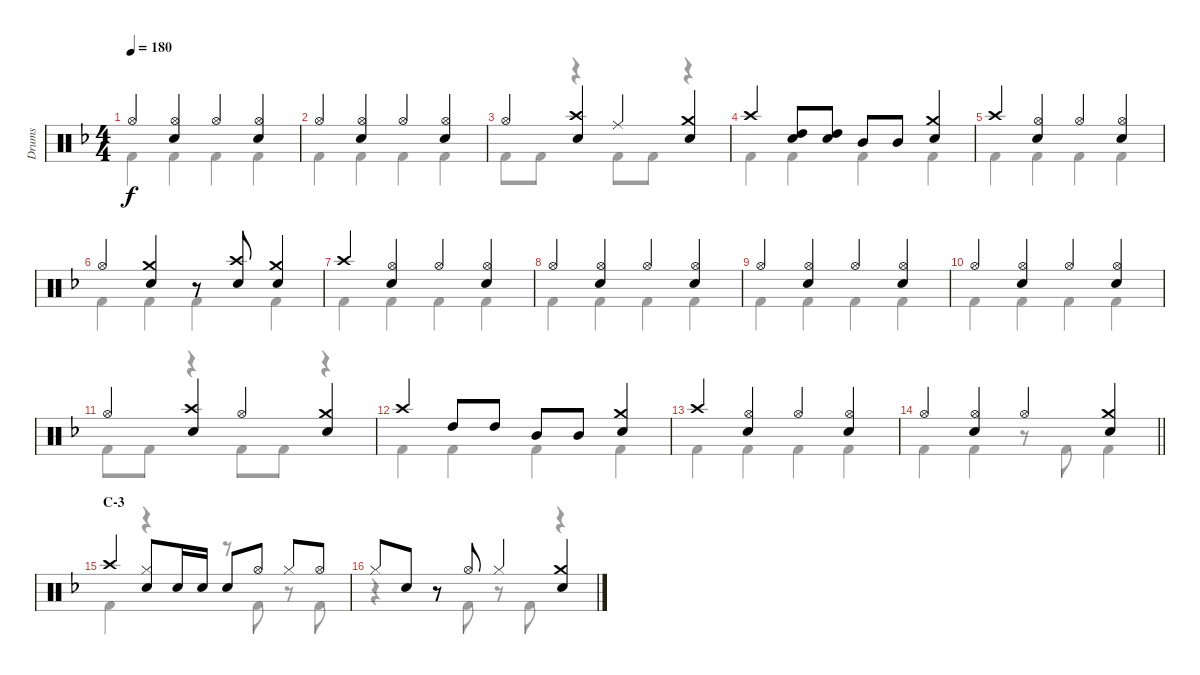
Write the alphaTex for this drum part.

\track ("Drums" "Drums") {instrument percussion}
\staff {score}
\articulation defaults
\voice
\ts (4 4)
\tempo 180
\clef neutral
\ks f "Hi-Hat (open)".4{dy f}
("Hi-Hat (open)" "Snare (hit) 2").4 "Hi-Hat (open)".4 ("Hi-Hat (open)" "Snare (hit) 2").4 |
"Hi-Hat (open)".4 ("Hi-Hat (open)" "Snare (hit) 2").4 "Hi-Hat (open)".4 ("Hi-Hat (open)" "Snare (hit) 2").4 |
"Hi-Hat (open)".4 ("Crash high (hit)" "Snare (hit) 2").4 "Ride (middle)".4 ("Crash medium (hit)" "Snare (hit) 2").4 |
"Crash high (hit)".4 ("High Tom (hit)" "Snare (hit) 2").8 ("High Tom (hit)" "Snare (hit) 2").8 "Mid Tom (hit)".8 "Mid Tom (hit)".8 ("Crash medium (hit)" "Snare (hit) 2").4 |
"Crash high (hit)".4 ("Hi-Hat (open)" "Snare (hit) 2").4 "Hi-Hat (open)".4 ("Hi-Hat (open)" "Snare (hit) 2").4 |
"Hi-Hat (open)".4 ("Crash medium (hit)" "Snare (hit) 2").4 r.8 ("Crash high (hit)" "Snare (hit) 2").8 ("Crash medium (hit)" "Snare (hit) 2").4 |
"Crash high (hit)".4 ("Hi-Hat (open)" "Snare (hit) 2").4 "Hi-Hat (open)".4 ("Hi-Hat (open)" "Snare (hit) 2").4 |
"Hi-Hat (open)".4 ("Hi-Hat (open)" "Snare (hit) 2").4 "Hi-Hat (open)".4 ("Hi-Hat (open)" "Snare (hit) 2").4 |
"Hi-Hat (open)".4 ("Hi-Hat (open)" "Snare (hit) 2").4 "Hi-Hat (open)".4 ("Hi-Hat (open)" "Snare (hit) 2").4 |
"Hi-Hat (open)".4 ("Hi-Hat (open)" "Snare (hit) 2").4 "Hi-Hat (open)".4 ("Hi-Hat (open)" "Snare (hit) 2").4 |
"Hi-Hat (open)".4 ("Crash high (hit)" "Snare (hit) 2").4 "Hi-Hat (open)".4 ("Crash medium (hit)" "Snare (hit) 2").4 |
"Crash high (hit)".4 "High Tom (hit)".8 "High Tom (hit)".8 "Mid Tom (hit)".8 "Mid Tom (hit)".8 ("Crash medium (hit)" "Snare (hit) 2").4 |
"Crash high (hit)".4 ("Hi-Hat (open)" "Snare (hit) 2").4 "Hi-Hat (open)".4 ("Hi-Hat (open)" "Snare (hit) 2").4 |
\barLineRight lightlight "Hi-Hat (open)".4
("Hi-Hat (open)" "Snare (hit) 2").4 "Hi-Hat (open)".4 ("Crash medium (hit)" "Snare (hit) 2").4 |
\section ("" "C-3")
"Crash high (hit)".4 ("Hi-Hat (closed)" "Snare (hit) 2").8 "Snare (hit) 2".16 "Snare (hit) 2".16 "Snare (hit) 2".8 "Hi-Hat (open)".8 "Hi-Hat (closed)".8 "Hi-Hat (open)".8 |
"Hi-Hat (closed)".8 "Snare (hit) 2".8 r.8 "Hi-Hat (open)".8 "Hi-Hat (closed)".4 ("Crash medium (hit)" "Snare (hit) 2").4
\voice
\clef neutral
\ottava regular
\simile none
\ks f "Kick (hit) 2".4{dy f} "Kick (hit) 2".4 "Kick (hit) 2".4 "Kick (hit) 2".4
|
"Kick (hit) 2".4 "Kick (hit) 2".4 "Kick (hit) 2".4 "Kick (hit) 2".4 |
"Kick (hit) 2".8 "Kick (hit) 2".8 r.4 "Kick (hit) 2".8 "Kick (hit) 2".8 r.4 |
"Kick (hit) 2".4 "Kick (hit) 2".4 "Kick (hit) 2".4 "Kick (hit) 2".4 |
"Kick (hit) 2".4 "Kick (hit) 2".4 "Kick (hit) 2".4 "Kick (hit) 2".4 |
"Kick (hit) 2".4 "Kick (hit) 2".4 "Kick (hit) 2".4 "Kick (hit) 2".4 |
"Kick (hit) 2".4 "Kick (hit) 2".4 "Kick (hit) 2".4 "Kick (hit) 2".4 |
"Kick (hit) 2".4 "Kick (hit) 2".4 "Kick (hit) 2".4 "Kick (hit) 2".4 |
"Kick (hit) 2".4 "Kick (hit) 2".4 "Kick (hit) 2".4 "Kick (hit) 2".4 |
"Kick (hit) 2".4 "Kick (hit) 2".4 "Kick (hit) 2".4 "Kick (hit) 2".4 |
"Kick (hit) 2".8 "Kick (hit) 2".8 r.4 "Kick (hit) 2".8 "Kick (hit) 2".8 r.4 |
"Kick (hit) 2".4 "Kick (hit) 2".4 "Kick (hit) 2".4 "Kick (hit) 2".4 |
"Kick (hit) 2".4 "Kick (hit) 2".4 "Kick (hit) 2".4 "Kick (hit) 2".4 |
\barLineRight lightlight "Kick (hit) 2".4 "Kick (hit) 2".4
r.8 "Kick (hit) 2".8 "Kick (hit) 2".4 |
"Kick (hit) 2".4 r.4 r.8 "Kick (hit) 2".8 r.8 "Kick (hit) 2".8 |
r.4 r.8 "Kick (hit) 2".8 r.8 "Kick (hit) 2".8 r.4
